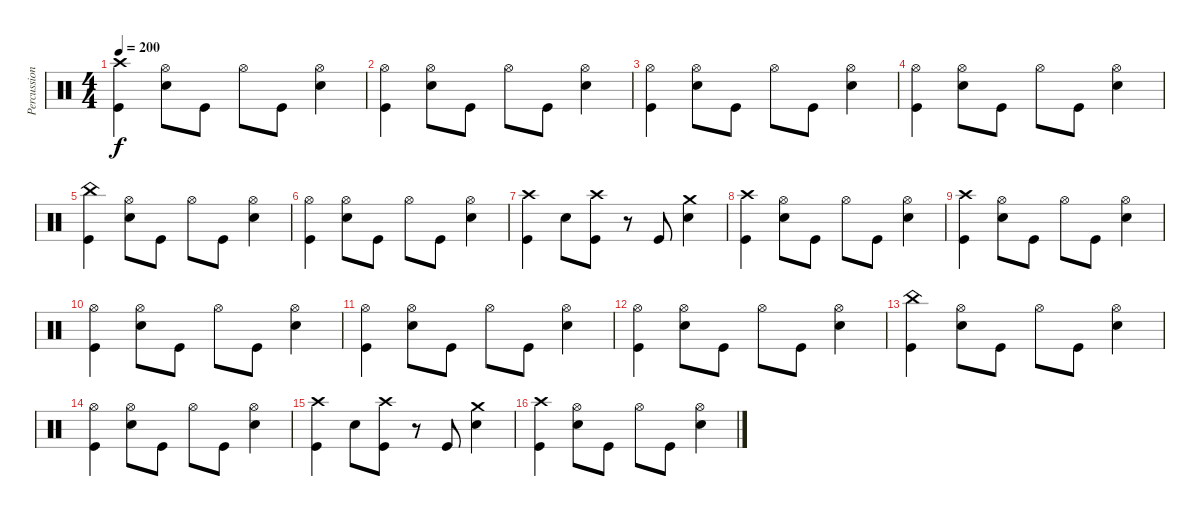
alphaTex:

\track ("Percussion" "Percussion") {instrument percussion}
\staff {score}
\articulation defaults
\ts (4 4)
\tempo 200
\clef neutral
\ks c
("Crash high (hit)" "Kick (hit)").4{dy f} ("Snare (hit) 2" "Hi-Hat (open)").8 "Kick (hit)".8 "Hi-Hat (open)".8 "Kick (hit)".8 ("Snare (hit) 2" "Hi-Hat (open)").4 |
("Hi-Hat (open)" "Kick (hit)").4 ("Snare (hit) 2" "Hi-Hat (open)").8 "Kick (hit)".8 "Hi-Hat (open)".8 "Kick (hit)".8 ("Snare (hit) 2" "Hi-Hat (open)").4 |
("Kick (hit)" "Hi-Hat (open)").4 ("Snare (hit) 2" "Hi-Hat (open)").8 "Kick (hit)".8 "Hi-Hat (open)".8 "Kick (hit)".8 ("Snare (hit) 2" "Hi-Hat (open)").4 |
("Kick (hit)" "Hi-Hat (open)").4 ("Snare (hit) 2" "Hi-Hat (open)").8 "Kick (hit)".8 "Hi-Hat (open)".8 "Kick (hit)".8 ("Snare (hit) 2" "Hi-Hat (open)").4 |
("China (hit)" "Kick (hit)").4 ("Snare (hit) 2" "Hi-Hat (open)").8 "Kick (hit)".8 "Hi-Hat (open)".8 "Kick (hit)".8 ("Snare (hit) 2" "Hi-Hat (open)").4 |
("Kick (hit)" "Hi-Hat (open)").4 ("Snare (hit) 2" "Hi-Hat (open)").8 "Kick (hit)".8 "Hi-Hat (open)".8 "Kick (hit)".8 ("Snare (hit) 2" "Hi-Hat (open)").4 |
("Kick (hit)" "Crash high (hit)").4 "Snare (hit) 2".8 ("Kick (hit)" "Crash high (hit)").8 r.8 "Kick (hit)".8 ("Snare (hit) 2" "Crash medium (hit)").4 |
("Kick (hit)" "Crash high (hit)").4 ("Snare (hit) 2" "Hi-Hat (open)").8 "Kick (hit)".8 "Hi-Hat (open)".8 "Kick (hit)".8 ("Snare (hit) 2" "Hi-Hat (open)").4 |
("Crash high (hit)" "Kick (hit)").4 ("Snare (hit) 2" "Hi-Hat (open)").8 "Kick (hit)".8 "Hi-Hat (open)".8 "Kick (hit)".8 ("Snare (hit) 2" "Hi-Hat (open)").4 |
("Hi-Hat (open)" "Kick (hit)").4 ("Snare (hit) 2" "Hi-Hat (open)").8 "Kick (hit)".8 "Hi-Hat (open)".8 "Kick (hit)".8 ("Snare (hit) 2" "Hi-Hat (open)").4 |
("Kick (hit)" "Hi-Hat (open)").4 ("Snare (hit) 2" "Hi-Hat (open)").8 "Kick (hit)".8 "Hi-Hat (open)".8 "Kick (hit)".8 ("Snare (hit) 2" "Hi-Hat (open)").4 |
("Kick (hit)" "Hi-Hat (open)").4 ("Snare (hit) 2" "Hi-Hat (open)").8 "Kick (hit)".8 "Hi-Hat (open)".8 "Kick (hit)".8 ("Snare (hit) 2" "Hi-Hat (open)").4 |
("China (hit)" "Kick (hit)").4 ("Snare (hit) 2" "Hi-Hat (open)").8 "Kick (hit)".8 "Hi-Hat (open)".8 "Kick (hit)".8 ("Snare (hit) 2" "Hi-Hat (open)").4 |
("Kick (hit)" "Hi-Hat (open)").4 ("Snare (hit) 2" "Hi-Hat (open)").8 "Kick (hit)".8 "Hi-Hat (open)".8 "Kick (hit)".8 ("Snare (hit) 2" "Hi-Hat (open)").4 |
("Kick (hit)" "Crash high (hit)").4 "Snare (hit) 2".8 ("Kick (hit)" "Crash high (hit)").8 r.8 "Kick (hit)".8 ("Snare (hit) 2" "Crash medium (hit)").4 |
("Kick (hit)" "Crash high (hit)").4 ("Snare (hit) 2" "Hi-Hat (open)").8 "Kick (hit)".8 "Hi-Hat (open)".8 "Kick (hit)".8 ("Snare (hit) 2" "Hi-Hat (open)").4
